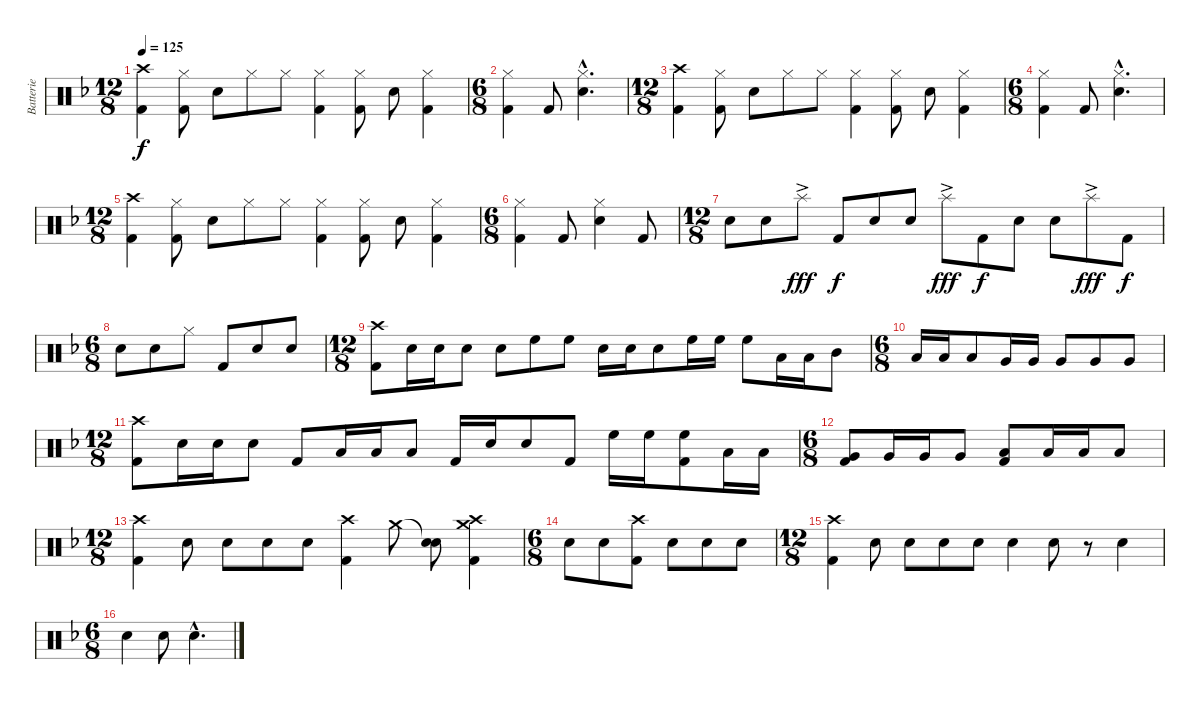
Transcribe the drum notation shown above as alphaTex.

\track ("Batterie" "Batterie") {instrument percussion}
\staff {score}
\articulation defaults
\ts (12 8)
\tempo 125
\clef neutral
\ks f
("Crash high (hit)" "Kick (hit) 2").4{dy f} ("Hi-Hat (closed)" "Kick (hit) 2").8 "Electric Snare (hit)".8 "Hi-Hat (closed)".8 "Hi-Hat (closed)".8 ("Hi-Hat (closed)" "Kick (hit) 2").4 ("Hi-Hat (closed)" "Kick (hit) 2").8 "Electric Snare (hit)".8 ("Hi-Hat (closed)" "Kick (hit) 2").4 |
\ts (6 8)
("Hi-Hat (closed)" "Kick (hit) 2").4 "Kick (hit) 2".8 ("Hi-Hat (closed)"{hac} "Electric Snare (hit)"{hac}).4{d} |
\ts (12 8)
("Crash high (hit)" "Kick (hit) 2").4 ("Hi-Hat (closed)" "Kick (hit) 2").8 "Electric Snare (hit)".8 "Hi-Hat (closed)".8 "Hi-Hat (closed)".8 ("Hi-Hat (closed)" "Kick (hit) 2").4 ("Hi-Hat (closed)" "Kick (hit) 2").8 "Electric Snare (hit)".8 ("Hi-Hat (closed)" "Kick (hit) 2").4 |
\ts (6 8)
("Hi-Hat (closed)" "Kick (hit) 2").4 "Kick (hit) 2".8 ("Hi-Hat (closed)"{hac} "Electric Snare (hit)"{hac}).4{d} |
\ts (12 8)
("Crash high (hit)" "Kick (hit) 2").4 ("Hi-Hat (closed)" "Kick (hit) 2").8 "Electric Snare (hit)".8 "Hi-Hat (closed)".8 "Hi-Hat (closed)".8 ("Hi-Hat (closed)" "Kick (hit) 2").4 ("Hi-Hat (closed)" "Kick (hit) 2").8 "Electric Snare (hit)".8 ("Hi-Hat (closed)" "Kick (hit) 2").4 |
\ts (6 8)
("Hi-Hat (closed)" "Kick (hit) 2").4 "Kick (hit) 2".8 ("Hi-Hat (closed)" "Electric Snare (hit)").4 "Kick (hit) 2".8 |
\ts (12 8)
"Electric Snare (hit)".8 "Electric Snare (hit)".8 "Splash (hit)"{ac}.8{dy fff} "Kick (hit) 2".8{dy f} "Electric Snare (hit)".8 "Electric Snare (hit)".8 "Splash (hit)"{ac}.8{dy fff} "Kick (hit) 2".8{dy f} "Electric Snare (hit)".8 "Electric Snare (hit)".8 "Splash (hit)"{ac}.8{dy fff} "Kick (hit) 2".8{dy f} |
\ts (6 8)
"Electric Snare (hit)".8 "Electric Snare (hit)".8 "Hi-Hat (closed)".8 "Kick (hit) 2".8 "Electric Snare (hit)".8 "Electric Snare (hit)".8 |
\ts (12 8)
("Crash high (hit)" "Kick (hit) 2").8 "Electric Snare (hit)".16 "Electric Snare (hit)".16 "Electric Snare (hit)".8 "Electric Snare (hit)".8 "High Floor Tom (hit)".8 "High Floor Tom (hit)".8 "Electric Snare (hit)".16 "Electric Snare (hit)".16 "Electric Snare (hit)".8 "High Floor Tom (hit)".16 "High Floor Tom (hit)".16 "High Floor Tom (hit)".8 "Low Tom (hit)".16 "Low Tom (hit)".16 "Mid Tom (hit)".8 |
\ts (6 8)
"Low Tom (hit)".16 "Low Tom (hit)".16 "Low Tom (hit)".8 "Very Low Tom (hit)".16 "Very Low Tom (hit)".16 "Very Low Tom (hit)".8 "Very Low Tom (hit)".8 "Very Low Tom (hit)".8 |
\ts (12 8)
("Crash high (hit)" "Kick (hit) 2").8 "Electric Snare (hit)".16 "Electric Snare (hit)".16 "Electric Snare (hit)".8 "Kick (hit) 2".8 "Low Tom (hit)".16 "Low Tom (hit)".16 "Low Tom (hit)".8 "Kick (hit) 2".16 "Electric Snare (hit)".16 "Electric Snare (hit)".8 "Kick (hit) 2".8 "High Floor Tom (hit)".16 "High Floor Tom (hit)".16 ("High Floor Tom (hit)" "Kick (hit) 2").8 "Low Tom (hit)".16 "Low Tom (hit)".16 |
\ts (6 8)
("Very Low Tom (hit)" "Kick (hit) 2").8 "Very Low Tom (hit)".16 "Very Low Tom (hit)".16 "Very Low Tom (hit)".8 ("Low Floor Tom (hit)" "Kick (hit) 2").8 "Low Floor Tom (hit)".16 "Low Floor Tom (hit)".16 "Low Floor Tom (hit)".8 |
\ts (12 8)
("Crash high (hit)" "Kick (hit) 2").4 "Electric Snare (hit)".8 "Electric Snare (hit)".8 "Electric Snare (hit)".8 "Electric Snare (hit)".8 ("Crash high (hit)" "Kick (hit) 2").4 "Crash medium (hit)".8 ("Snare (hit)"{t} "Electric Snare (hit)").8 ("Crash high (hit)" "Crash medium (hit)" "Kick (hit) 2").4 |
\ts (6 8)
"Electric Snare (hit)".8 "Electric Snare (hit)".8 ("Crash high (hit)" "Kick (hit) 2").8 "Electric Snare (hit)".8 "Electric Snare (hit)".8 "Electric Snare (hit)".8 |
\ts (12 8)
("Crash high (hit)" "Kick (hit) 2").4 "Electric Snare (hit)".8 "Electric Snare (hit)".8 "Electric Snare (hit)".8 "Electric Snare (hit)".8 "Electric Snare (hit)".4 "Electric Snare (hit)".8 r.8 "Electric Snare (hit)".4 |
\ts (6 8)
"Electric Snare (hit)".4 "Electric Snare (hit)".8 "Electric Snare (hit)"{hac}.4{d}
